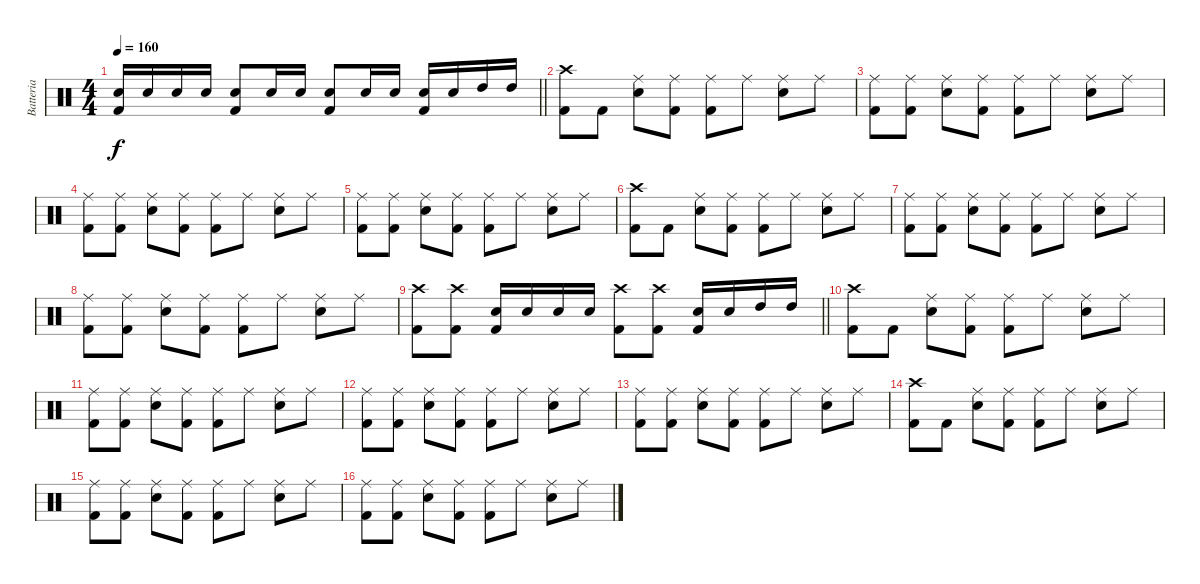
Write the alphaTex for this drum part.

\track ("Batteria" "Batteria") {instrument percussion}
\staff {score}
\articulation defaults
\ts (4 4)
\tempo 160
\clef neutral
\barLineRight lightlight
\ks c
("Electric Snare (hit)" "Kick (hit) 2").16{dy f} "Electric Snare (hit)".16 "Electric Snare (hit)".16 "Electric Snare (hit)".16 ("Electric Snare (hit)" "Kick (hit) 2").8 "Electric Snare (hit)".16 "Electric Snare (hit)".16 ("Electric Snare (hit)" "Kick (hit) 2").8 "Electric Snare (hit)".16 "Electric Snare (hit)".16 ("Electric Snare (hit)" "Kick (hit) 2").16 "Electric Snare (hit)".16 "High Tom (hit)".16 "High Tom (hit)".16 |
("Crash high (hit)" "Kick (hit) 2").8 "Kick (hit) 2".8 ("Ride (middle)" "Electric Snare (hit)").8 ("Ride (middle)" "Kick (hit) 2").8 ("Ride (middle)" "Kick (hit) 2").8 "Ride (middle)".8 ("Ride (middle)" "Electric Snare (hit)").8 "Ride (middle)".8 |
("Ride (middle)" "Kick (hit) 2").8 ("Ride (middle)" "Kick (hit) 2").8 ("Ride (middle)" "Electric Snare (hit)").8 ("Ride (middle)" "Kick (hit) 2").8 ("Ride (middle)" "Kick (hit) 2").8 "Ride (middle)".8 ("Ride (middle)" "Electric Snare (hit)").8 "Ride (middle)".8 |
("Ride (middle)" "Kick (hit) 2").8 ("Ride (middle)" "Kick (hit) 2").8 ("Ride (middle)" "Electric Snare (hit)").8 ("Ride (middle)" "Kick (hit) 2").8 ("Ride (middle)" "Kick (hit) 2").8 "Ride (middle)".8 ("Ride (middle)" "Electric Snare (hit)").8 "Ride (middle)".8 |
("Ride (middle)" "Kick (hit) 2").8 ("Ride (middle)" "Kick (hit) 2").8 ("Ride (middle)" "Electric Snare (hit)").8 ("Ride (middle)" "Kick (hit) 2").8 ("Ride (middle)" "Kick (hit) 2").8 "Ride (middle)".8 ("Ride (middle)" "Electric Snare (hit)").8 "Ride (middle)".8 |
("Crash high (hit)" "Kick (hit) 2").8 "Kick (hit) 2".8 ("Ride (middle)" "Electric Snare (hit)").8 ("Ride (middle)" "Kick (hit) 2").8 ("Ride (middle)" "Kick (hit) 2").8 "Ride (middle)".8 ("Ride (middle)" "Electric Snare (hit)").8 "Ride (middle)".8 |
("Ride (middle)" "Kick (hit) 2").8 ("Ride (middle)" "Kick (hit) 2").8 ("Ride (middle)" "Electric Snare (hit)").8 ("Ride (middle)" "Kick (hit) 2").8 ("Ride (middle)" "Kick (hit) 2").8 "Ride (middle)".8 ("Ride (middle)" "Electric Snare (hit)").8 "Ride (middle)".8 |
("Ride (middle)" "Kick (hit) 2").8 ("Ride (middle)" "Kick (hit) 2").8 ("Ride (middle)" "Electric Snare (hit)").8 ("Ride (middle)" "Kick (hit) 2").8 ("Ride (middle)" "Kick (hit) 2").8 "Ride (middle)".8 ("Ride (middle)" "Electric Snare (hit)").8 "Ride (middle)".8 |
\barLineRight lightlight
("Crash high (hit)" "Kick (hit) 2").8 ("Crash high (hit)" "Kick (hit) 2").8 ("Electric Snare (hit)" "Kick (hit) 2").16 "Electric Snare (hit)".16 "Electric Snare (hit)".16 "Electric Snare (hit)".16 ("Crash high (hit)" "Kick (hit) 2").8 ("Crash high (hit)" "Kick (hit) 2").8 ("Electric Snare (hit)" "Kick (hit) 2").16 "Electric Snare (hit)".16 "High Tom (hit)".16 "High Tom (hit)".16 |
("Crash high (hit)" "Kick (hit) 2").8 "Kick (hit) 2".8 ("Ride (middle)" "Electric Snare (hit)").8 ("Ride (middle)" "Kick (hit) 2").8 ("Ride (middle)" "Kick (hit) 2").8 "Ride (middle)".8 ("Ride (middle)" "Electric Snare (hit)").8 "Ride (middle)".8 |
("Ride (middle)" "Kick (hit) 2").8 ("Ride (middle)" "Kick (hit) 2").8 ("Ride (middle)" "Electric Snare (hit)").8 ("Ride (middle)" "Kick (hit) 2").8 ("Ride (middle)" "Kick (hit) 2").8 "Ride (middle)".8 ("Ride (middle)" "Electric Snare (hit)").8 "Ride (middle)".8 |
("Ride (middle)" "Kick (hit) 2").8 ("Ride (middle)" "Kick (hit) 2").8 ("Ride (middle)" "Electric Snare (hit)").8 ("Ride (middle)" "Kick (hit) 2").8 ("Ride (middle)" "Kick (hit) 2").8 "Ride (middle)".8 ("Ride (middle)" "Electric Snare (hit)").8 "Ride (middle)".8 |
("Ride (middle)" "Kick (hit) 2").8 ("Ride (middle)" "Kick (hit) 2").8 ("Ride (middle)" "Electric Snare (hit)").8 ("Ride (middle)" "Kick (hit) 2").8 ("Ride (middle)" "Kick (hit) 2").8 "Ride (middle)".8 ("Ride (middle)" "Electric Snare (hit)").8 "Ride (middle)".8 |
("Crash high (hit)" "Kick (hit) 2").8 "Kick (hit) 2".8 ("Ride (middle)" "Electric Snare (hit)").8 ("Ride (middle)" "Kick (hit) 2").8 ("Ride (middle)" "Kick (hit) 2").8 "Ride (middle)".8 ("Ride (middle)" "Electric Snare (hit)").8 "Ride (middle)".8 |
("Ride (middle)" "Kick (hit) 2").8 ("Ride (middle)" "Kick (hit) 2").8 ("Ride (middle)" "Electric Snare (hit)").8 ("Ride (middle)" "Kick (hit) 2").8 ("Ride (middle)" "Kick (hit) 2").8 "Ride (middle)".8 ("Ride (middle)" "Electric Snare (hit)").8 "Ride (middle)".8 |
("Ride (middle)" "Kick (hit) 2").8 ("Ride (middle)" "Kick (hit) 2").8 ("Ride (middle)" "Electric Snare (hit)").8 ("Ride (middle)" "Kick (hit) 2").8 ("Ride (middle)" "Kick (hit) 2").8 "Ride (middle)".8 ("Ride (middle)" "Electric Snare (hit)").8 "Ride (middle)".8
